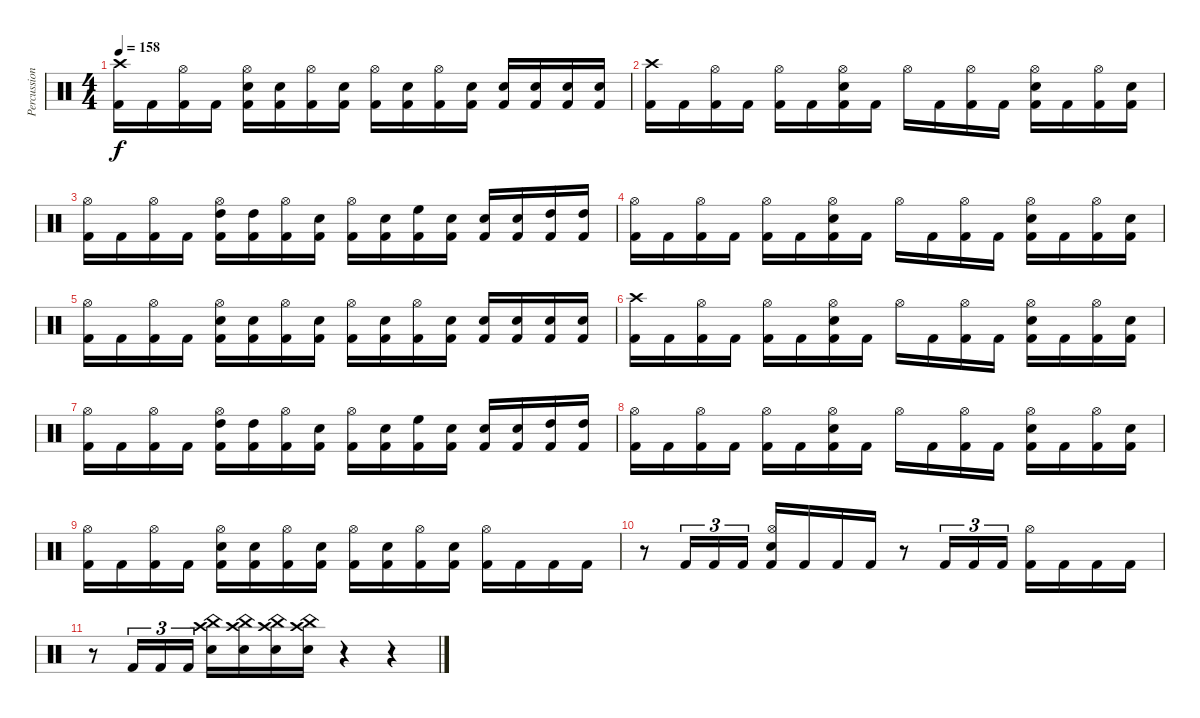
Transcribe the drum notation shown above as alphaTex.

\track ("Percussion" "Percussion") {instrument percussion}
\staff {score}
\articulation defaults
\ts (4 4)
\tempo 158
\clef neutral
\ks c
("Crash high (hit)" "Kick (hit) 2").16{dy f} "Kick (hit) 2".16 ("Hi-Hat (open)" "Kick (hit) 2").16 "Kick (hit) 2".16 ("Hi-Hat (open)" "Electric Snare (hit)" "Kick (hit) 2").16 ("Electric Snare (hit)" "Kick (hit) 2").16 ("Hi-Hat (open)" "Kick (hit) 2").16 ("Electric Snare (hit)" "Kick (hit) 2").16 ("Hi-Hat (open)" "Kick (hit) 2").16 ("Electric Snare (hit)" "Kick (hit) 2").16 ("Hi-Hat (open)" "Kick (hit) 2").16 ("Electric Snare (hit)" "Kick (hit) 2").16 ("Electric Snare (hit)" "Kick (hit) 2").16 ("Electric Snare (hit)" "Kick (hit) 2").16 ("Electric Snare (hit)" "Kick (hit) 2").16 ("Electric Snare (hit)" "Kick (hit) 2").16 |
("Crash high (hit)" "Kick (hit) 2").16 "Kick (hit) 2".16 ("Hi-Hat (open)" "Kick (hit) 2").16 "Kick (hit) 2".16 ("Hi-Hat (open)" "Kick (hit) 2").16 "Kick (hit) 2".16 ("Hi-Hat (open)" "Electric Snare (hit)" "Kick (hit) 2").16 "Kick (hit) 2".16 "Hi-Hat (open)".16 "Kick (hit) 2".16 ("Hi-Hat (open)" "Kick (hit) 2").16 "Kick (hit) 2".16 ("Hi-Hat (open)" "Electric Snare (hit)" "Kick (hit) 2").16 "Kick (hit) 2".16 ("Hi-Hat (open)" "Kick (hit) 2").16 ("Electric Snare (hit)" "Kick (hit) 2").16 |
("Hi-Hat (open)" "Kick (hit) 2").16 "Kick (hit) 2".16 ("Hi-Hat (open)" "Kick (hit) 2").16 "Kick (hit) 2".16 ("High Tom (hit)" "Hi-Hat (open)" "Kick (hit) 2").16 ("High Tom (hit)" "Kick (hit) 2").16 ("Hi-Hat (open)" "Kick (hit) 2").16 ("Electric Snare (hit)" "Kick (hit) 2").16 ("Hi-Hat (open)" "Kick (hit) 2").16 ("Electric Snare (hit)" "Kick (hit) 2").16 ("High Floor Tom (hit)" "Kick (hit) 2").16 ("Electric Snare (hit)" "Kick (hit) 2").16 ("Electric Snare (hit)" "Kick (hit) 2").16 ("Electric Snare (hit)" "Kick (hit) 2").16 ("High Tom (hit)" "Kick (hit) 2").16 ("High Tom (hit)" "Kick (hit) 2").16 |
("Hi-Hat (open)" "Kick (hit) 2").16 "Kick (hit) 2".16 ("Hi-Hat (open)" "Kick (hit) 2").16 "Kick (hit) 2".16 ("Hi-Hat (open)" "Kick (hit) 2").16 "Kick (hit) 2".16 ("Hi-Hat (open)" "Electric Snare (hit)" "Kick (hit) 2").16 "Kick (hit) 2".16 "Hi-Hat (open)".16 "Kick (hit) 2".16 ("Hi-Hat (open)" "Kick (hit) 2").16 "Kick (hit) 2".16 ("Hi-Hat (open)" "Electric Snare (hit)" "Kick (hit) 2").16 "Kick (hit) 2".16 ("Hi-Hat (open)" "Kick (hit) 2").16 ("Electric Snare (hit)" "Kick (hit) 2").16 |
("Hi-Hat (open)" "Kick (hit) 2").16 "Kick (hit) 2".16 ("Hi-Hat (open)" "Kick (hit) 2").16 "Kick (hit) 2".16 ("Hi-Hat (open)" "Electric Snare (hit)" "Kick (hit) 2").16 ("Electric Snare (hit)" "Kick (hit) 2").16 ("Hi-Hat (open)" "Kick (hit) 2").16 ("Electric Snare (hit)" "Kick (hit) 2").16 ("Hi-Hat (open)" "Kick (hit) 2").16 ("Electric Snare (hit)" "Kick (hit) 2").16 ("Hi-Hat (open)" "Kick (hit) 2").16 ("Electric Snare (hit)" "Kick (hit) 2").16 ("Electric Snare (hit)" "Kick (hit) 2").16 ("Electric Snare (hit)" "Kick (hit) 2").16 ("Electric Snare (hit)" "Kick (hit) 2").16 ("Electric Snare (hit)" "Kick (hit) 2").16 |
("Crash high (hit)" "Kick (hit) 2").16 "Kick (hit) 2".16 ("Hi-Hat (open)" "Kick (hit) 2").16 "Kick (hit) 2".16 ("Hi-Hat (open)" "Kick (hit) 2").16 "Kick (hit) 2".16 ("Hi-Hat (open)" "Electric Snare (hit)" "Kick (hit) 2").16 "Kick (hit) 2".16 "Hi-Hat (open)".16 "Kick (hit) 2".16 ("Hi-Hat (open)" "Kick (hit) 2").16 "Kick (hit) 2".16 ("Hi-Hat (open)" "Electric Snare (hit)" "Kick (hit) 2").16 "Kick (hit) 2".16 ("Hi-Hat (open)" "Kick (hit) 2").16 ("Electric Snare (hit)" "Kick (hit) 2").16 |
("Hi-Hat (open)" "Kick (hit) 2").16 "Kick (hit) 2".16 ("Hi-Hat (open)" "Kick (hit) 2").16 "Kick (hit) 2".16 ("High Tom (hit)" "Hi-Hat (open)" "Kick (hit) 2").16 ("High Tom (hit)" "Kick (hit) 2").16 ("Hi-Hat (open)" "Kick (hit) 2").16 ("Electric Snare (hit)" "Kick (hit) 2").16 ("Hi-Hat (open)" "Kick (hit) 2").16 ("Electric Snare (hit)" "Kick (hit) 2").16 ("High Floor Tom (hit)" "Kick (hit) 2").16 ("Electric Snare (hit)" "Kick (hit) 2").16 ("Electric Snare (hit)" "Kick (hit) 2").16 ("Electric Snare (hit)" "Kick (hit) 2").16 ("High Tom (hit)" "Kick (hit) 2").16 ("High Tom (hit)" "Kick (hit) 2").16 |
("Hi-Hat (open)" "Kick (hit) 2").16 "Kick (hit) 2".16 ("Hi-Hat (open)" "Kick (hit) 2").16 "Kick (hit) 2".16 ("Hi-Hat (open)" "Kick (hit) 2").16 "Kick (hit) 2".16 ("Hi-Hat (open)" "Electric Snare (hit)" "Kick (hit) 2").16 "Kick (hit) 2".16 "Hi-Hat (open)".16 "Kick (hit) 2".16 ("Hi-Hat (open)" "Kick (hit) 2").16 "Kick (hit) 2".16 ("Hi-Hat (open)" "Electric Snare (hit)" "Kick (hit) 2").16 "Kick (hit) 2".16 ("Hi-Hat (open)" "Kick (hit) 2").16 ("Electric Snare (hit)" "Kick (hit) 2").16 |
("Hi-Hat (open)" "Kick (hit) 2").16 "Kick (hit) 2".16 ("Hi-Hat (open)" "Kick (hit) 2").16 "Kick (hit) 2".16 ("Hi-Hat (open)" "Electric Snare (hit)" "Kick (hit) 2").16 ("Electric Snare (hit)" "Kick (hit) 2").16 ("Hi-Hat (open)" "Kick (hit) 2").16 ("Electric Snare (hit)" "Kick (hit) 2").16 ("Hi-Hat (open)" "Kick (hit) 2").16 ("Electric Snare (hit)" "Kick (hit) 2").16 ("Hi-Hat (open)" "Kick (hit) 2").16 ("Electric Snare (hit)" "Kick (hit) 2").16 ("Hi-Hat (open)" "Kick (hit) 2").16 "Kick (hit) 2".16 "Kick (hit) 2".16 "Kick (hit) 2".16 |
r.8 "Kick (hit) 2".16{tu (3 2)} "Kick (hit) 2".16{tu (3 2)} "Kick (hit) 2".16{tu (3 2)} ("Hi-Hat (open)" "Electric Snare (hit)" "Kick (hit) 2").16 "Kick (hit) 2".16 "Kick (hit) 2".16 "Kick (hit) 2".16 r.8 "Kick (hit) 2".16{tu (3 2)} "Kick (hit) 2".16{tu (3 2)} "Kick (hit) 2".16{tu (3 2)} ("Hi-Hat (open)" "Kick (hit) 2").16 "Kick (hit) 2".16 "Kick (hit) 2".16 "Kick (hit) 2".16 |
r.8 "Kick (hit) 2".16{tu (3 2)} "Kick (hit) 2".16{tu (3 2)} "Kick (hit) 2".16{tu (3 2)} ("Crash high (hit)" "China (hit)" "Electric Snare (hit)").16 ("Crash high (hit)" "China (hit)" "Electric Snare (hit)").16 ("Crash high (hit)" "China (hit)" "Electric Snare (hit)").16 ("Crash high (hit)" "China (hit)" "Electric Snare (hit)").16 r.4 r.4
